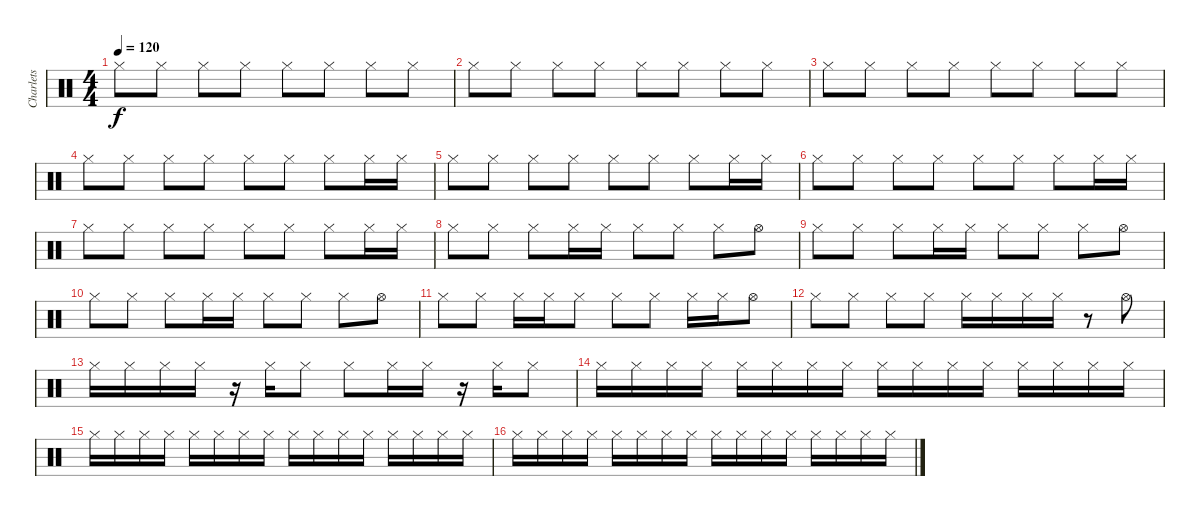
\track ("Charlets" "Charlets") {instrument percussion}
\staff {score}
\articulation defaults
\ts (4 4)
\tempo 120
\clef neutral
\ks c "Hi-Hat (closed)".8{dy f} "Hi-Hat (closed)".8 "Hi-Hat (closed)".8 "Hi-Hat (closed)".8 "Hi-Hat (closed)".8 "Hi-Hat (closed)".8 "Hi-Hat (closed)".8 "Hi-Hat (closed)".8
|
"Hi-Hat (closed)".8 "Hi-Hat (closed)".8 "Hi-Hat (closed)".8 "Hi-Hat (closed)".8 "Hi-Hat (closed)".8 "Hi-Hat (closed)".8 "Hi-Hat (closed)".8 "Hi-Hat (closed)".8 |
"Hi-Hat (closed)".8 "Hi-Hat (closed)".8 "Hi-Hat (closed)".8 "Hi-Hat (closed)".8 "Hi-Hat (closed)".8 "Hi-Hat (closed)".8 "Hi-Hat (closed)".8 "Hi-Hat (closed)".8 |
"Hi-Hat (closed)".8 "Hi-Hat (closed)".8 "Hi-Hat (closed)".8 "Hi-Hat (closed)".8 "Hi-Hat (closed)".8 "Hi-Hat (closed)".8 "Hi-Hat (closed)".8 "Hi-Hat (closed)".16 "Hi-Hat (closed)".16 |
"Hi-Hat (closed)".8 "Hi-Hat (closed)".8 "Hi-Hat (closed)".8 "Hi-Hat (closed)".8 "Hi-Hat (closed)".8 "Hi-Hat (closed)".8 "Hi-Hat (closed)".8 "Hi-Hat (closed)".16 "Hi-Hat (closed)".16 |
"Hi-Hat (closed)".8 "Hi-Hat (closed)".8 "Hi-Hat (closed)".8 "Hi-Hat (closed)".8 "Hi-Hat (closed)".8 "Hi-Hat (closed)".8 "Hi-Hat (closed)".8 "Hi-Hat (closed)".16 "Hi-Hat (closed)".16 |
"Hi-Hat (closed)".8 "Hi-Hat (closed)".8 "Hi-Hat (closed)".8 "Hi-Hat (closed)".8 "Hi-Hat (closed)".8 "Hi-Hat (closed)".8 "Hi-Hat (closed)".8 "Hi-Hat (closed)".16 "Hi-Hat (closed)".16 |
"Hi-Hat (closed)".8 "Hi-Hat (closed)".8 "Hi-Hat (closed)".8 "Hi-Hat (closed)".16 "Hi-Hat (closed)".16 "Hi-Hat (closed)".8 "Hi-Hat (closed)".8 "Hi-Hat (closed)".8 "Hi-Hat (open)".8 |
"Hi-Hat (closed)".8 "Hi-Hat (closed)".8 "Hi-Hat (closed)".8 "Hi-Hat (closed)".16 "Hi-Hat (closed)".16 "Hi-Hat (closed)".8 "Hi-Hat (closed)".8 "Hi-Hat (closed)".8 "Hi-Hat (open)".8 |
"Hi-Hat (closed)".8 "Hi-Hat (closed)".8 "Hi-Hat (closed)".8 "Hi-Hat (closed)".16 "Hi-Hat (closed)".16 "Hi-Hat (closed)".8 "Hi-Hat (closed)".8 "Hi-Hat (closed)".8 "Hi-Hat (open)".8 |
"Hi-Hat (closed)".8 "Hi-Hat (closed)".8 "Hi-Hat (closed)".16 "Hi-Hat (closed)".16 "Hi-Hat (closed)".8 "Hi-Hat (closed)".8 "Hi-Hat (closed)".8 "Hi-Hat (closed)".16 "Hi-Hat (closed)".16 "Hi-Hat (open)".8 |
"Hi-Hat (closed)".8 "Hi-Hat (closed)".8 "Hi-Hat (closed)".8 "Hi-Hat (closed)".8 "Hi-Hat (closed)".16 "Hi-Hat (closed)".16 "Hi-Hat (closed)".16 "Hi-Hat (closed)".16 r.8 "Hi-Hat (open)".8 |
"Hi-Hat (closed)".16 "Hi-Hat (closed)".16 "Hi-Hat (closed)".16 "Hi-Hat (closed)".16 r.16 "Hi-Hat (closed)".16 "Hi-Hat (closed)".8 "Hi-Hat (closed)".8 "Hi-Hat (closed)".16 "Hi-Hat (closed)".16 r.16 "Hi-Hat (closed)".16 "Hi-Hat (closed)".8 |
"Hi-Hat (closed)".16 "Hi-Hat (closed)".16 "Hi-Hat (closed)".16 "Hi-Hat (closed)".16 "Hi-Hat (closed)".16 "Hi-Hat (closed)".16 "Hi-Hat (closed)".16 "Hi-Hat (closed)".16 "Hi-Hat (closed)".16 "Hi-Hat (closed)".16 "Hi-Hat (closed)".16 "Hi-Hat (closed)".16 "Hi-Hat (closed)".16 "Hi-Hat (closed)".16 "Hi-Hat (closed)".16 "Hi-Hat (closed)".16 |
"Hi-Hat (closed)".16 "Hi-Hat (closed)".16 "Hi-Hat (closed)".16 "Hi-Hat (closed)".16 "Hi-Hat (closed)".16 "Hi-Hat (closed)".16 "Hi-Hat (closed)".16 "Hi-Hat (closed)".16 "Hi-Hat (closed)".16 "Hi-Hat (closed)".16 "Hi-Hat (closed)".16 "Hi-Hat (closed)".16 "Hi-Hat (closed)".16 "Hi-Hat (closed)".16 "Hi-Hat (closed)".16 "Hi-Hat (closed)".16 |
"Hi-Hat (closed)".16 "Hi-Hat (closed)".16 "Hi-Hat (closed)".16 "Hi-Hat (closed)".16 "Hi-Hat (closed)".16 "Hi-Hat (closed)".16 "Hi-Hat (closed)".16 "Hi-Hat (closed)".16 "Hi-Hat (closed)".16 "Hi-Hat (closed)".16 "Hi-Hat (closed)".16 "Hi-Hat (closed)".16 "Hi-Hat (closed)".16 "Hi-Hat (closed)".16 "Hi-Hat (closed)".16 "Hi-Hat (closed)".16
